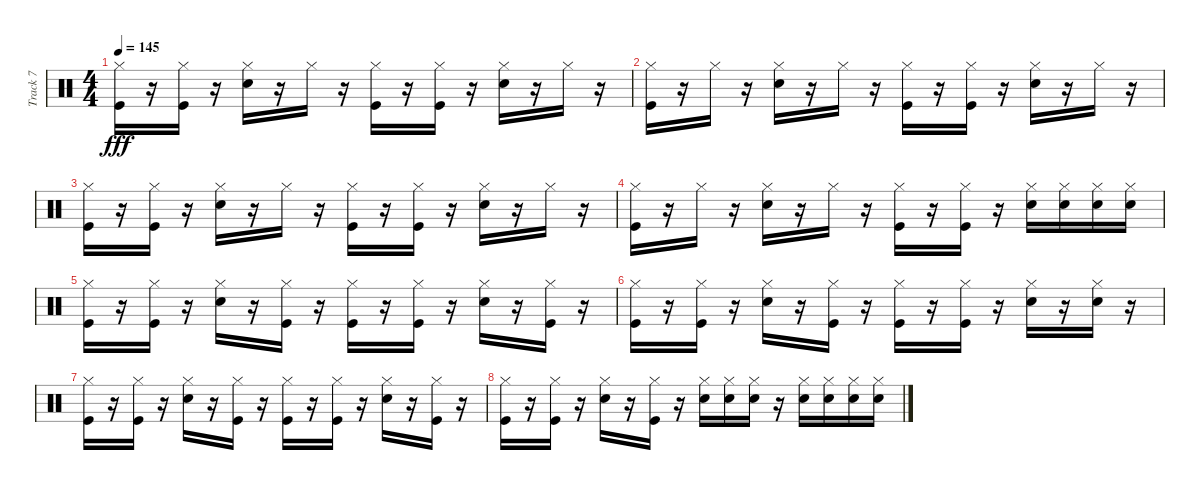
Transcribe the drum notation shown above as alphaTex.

\track ("Track 7" "Track 7") {instrument percussion}
\staff {score}
\articulation defaults
\ts (4 4)
\tempo 145
\clef neutral
\ks c
("Kick (hit)" "Hi-Hat (closed)").16{dy fff} r.16 ("Kick (hit)" "Hi-Hat (closed)").16 r.16 ("Snare (hit) 2" "Hi-Hat (closed)").16 r.16 "Hi-Hat (closed)".16 r.16 ("Kick (hit)" "Hi-Hat (closed)").16 r.16 ("Kick (hit)" "Hi-Hat (closed)").16 r.16 ("Snare (hit) 2" "Hi-Hat (closed)").16 r.16 "Hi-Hat (closed)".16 r.16 |
("Kick (hit)" "Hi-Hat (closed)").16 r.16 "Hi-Hat (closed)".16 r.16 ("Snare (hit) 2" "Hi-Hat (closed)").16 r.16 "Hi-Hat (closed)".16 r.16 ("Kick (hit)" "Hi-Hat (closed)").16 r.16 ("Kick (hit)" "Hi-Hat (closed)").16 r.16 ("Snare (hit) 2" "Hi-Hat (closed)").16 r.16 "Hi-Hat (closed)".16 r.16 |
("Kick (hit)" "Hi-Hat (closed)").16 r.16 ("Kick (hit)" "Hi-Hat (closed)").16 r.16 ("Snare (hit) 2" "Hi-Hat (closed)").16 r.16 "Hi-Hat (closed)".16 r.16 ("Kick (hit)" "Hi-Hat (closed)").16 r.16 ("Kick (hit)" "Hi-Hat (closed)").16 r.16 ("Snare (hit) 2" "Hi-Hat (closed)").16 r.16 "Hi-Hat (closed)".16 r.16 |
("Kick (hit)" "Hi-Hat (closed)").16 r.16 "Hi-Hat (closed)".16 r.16 ("Snare (hit) 2" "Hi-Hat (closed)").16 r.16 "Hi-Hat (closed)".16 r.16 ("Kick (hit)" "Hi-Hat (closed)").16 r.16 ("Kick (hit)" "Hi-Hat (closed)").16 r.16 ("Snare (hit) 2" "Hi-Hat (closed)").16 ("Snare (hit) 2" "Hi-Hat (closed)").16 ("Snare (hit) 2" "Hi-Hat (closed)").16 ("Snare (hit) 2" "Hi-Hat (closed)").16 |
("Kick (hit)" "Hi-Hat (closed)").16 r.16 ("Kick (hit)" "Hi-Hat (closed)").16 r.16 ("Snare (hit) 2" "Hi-Hat (closed)").16 r.16 ("Kick (hit)" "Hi-Hat (closed)").16 r.16 ("Kick (hit)" "Hi-Hat (closed)").16 r.16 ("Kick (hit)" "Hi-Hat (closed)").16 r.16 ("Snare (hit) 2" "Hi-Hat (closed)").16 r.16 ("Kick (hit)" "Hi-Hat (closed)").16 r.16 |
("Kick (hit)" "Hi-Hat (closed)").16 r.16 ("Kick (hit)" "Hi-Hat (closed)").16 r.16 ("Snare (hit) 2" "Hi-Hat (closed)").16 r.16 ("Kick (hit)" "Hi-Hat (closed)").16 r.16 ("Kick (hit)" "Hi-Hat (closed)").16 r.16 ("Kick (hit)" "Hi-Hat (closed)").16 r.16 ("Snare (hit) 2" "Hi-Hat (closed)").16 r.16 ("Snare (hit) 2" "Hi-Hat (closed)").16 r.16 |
("Kick (hit)" "Hi-Hat (closed)").16 r.16 ("Kick (hit)" "Hi-Hat (closed)").16 r.16 ("Snare (hit) 2" "Hi-Hat (closed)").16 r.16 ("Kick (hit)" "Hi-Hat (closed)").16 r.16 ("Kick (hit)" "Hi-Hat (closed)").16 r.16 ("Kick (hit)" "Hi-Hat (closed)").16 r.16 ("Snare (hit) 2" "Hi-Hat (closed)").16 r.16 ("Kick (hit)" "Hi-Hat (closed)").16 r.16 |
("Kick (hit)" "Hi-Hat (closed)").16 r.16 ("Kick (hit)" "Hi-Hat (closed)").16 r.16 ("Snare (hit) 2" "Hi-Hat (closed)").16 r.16 ("Kick (hit)" "Hi-Hat (closed)").16 r.16 ("Snare (hit) 2" "Hi-Hat (closed)").16 ("Snare (hit) 2" "Hi-Hat (closed)").16 ("Snare (hit) 2" "Hi-Hat (closed)").16 r.16 ("Snare (hit) 2" "Hi-Hat (closed)").16 ("Snare (hit) 2" "Hi-Hat (closed)").16 ("Snare (hit) 2" "Hi-Hat (closed)").16 ("Snare (hit) 2" "Hi-Hat (closed)").16
